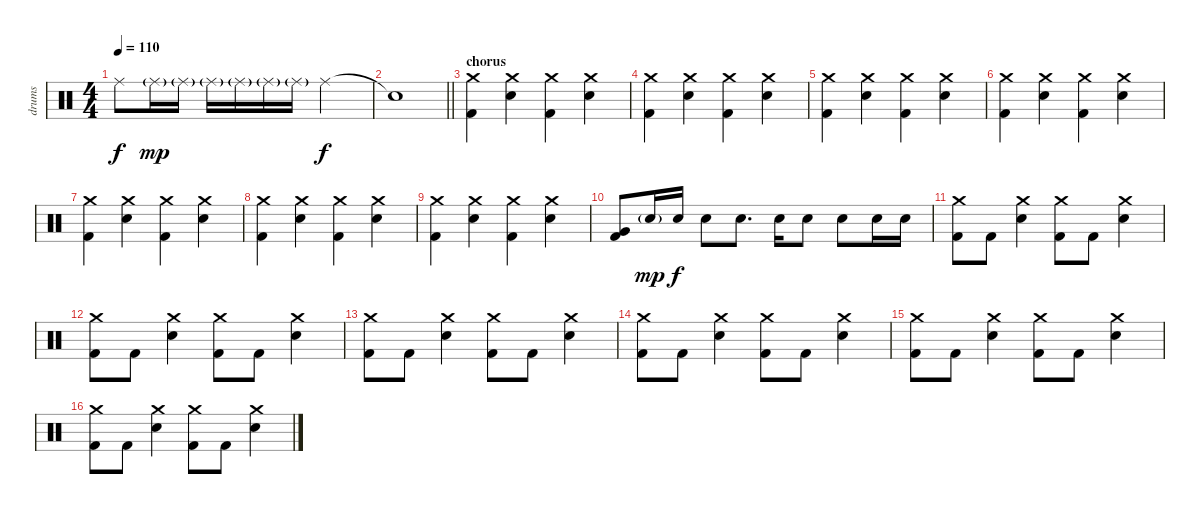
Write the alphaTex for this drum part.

\track ("drums" "drums") {instrument percussion}
\staff {score}
\articulation defaults
\ts (4 4)
\tempo 110
\clef neutral
\ks c "Ride (middle)".8{dy f} "Ride (middle)"{g}.16{dy mp} "Ride (middle)"{g}.16 "Ride (middle)"{g}.16 "Ride (middle)"{g}.16 "Ride (middle)"{g}.16 "Ride (middle)"{g}.16 "Ride (middle)".2{dy f}
|
\barLineRight lightlight "Snare (hit)"{t}.1
|
\section ("" "chorus")
("Crash medium (hit)" "Kick (hit) 2").4 ("Crash medium (hit)" "Electric Snare (hit)").4 ("Crash medium (hit)" "Kick (hit) 2").4 ("Crash medium (hit)" "Electric Snare (hit)").4 |
("Crash medium (hit)" "Kick (hit) 2").4 ("Crash medium (hit)" "Electric Snare (hit)").4 ("Crash medium (hit)" "Kick (hit) 2").4 ("Crash medium (hit)" "Electric Snare (hit)").4 |
("Crash medium (hit)" "Kick (hit) 2").4 ("Crash medium (hit)" "Electric Snare (hit)").4 ("Crash medium (hit)" "Kick (hit) 2").4 ("Crash medium (hit)" "Electric Snare (hit)").4 |
("Crash medium (hit)" "Kick (hit) 2").4 ("Crash medium (hit)" "Electric Snare (hit)").4 ("Crash medium (hit)" "Kick (hit) 2").4 ("Crash medium (hit)" "Electric Snare (hit)").4 |
("Crash medium (hit)" "Kick (hit) 2").4 ("Crash medium (hit)" "Electric Snare (hit)").4 ("Crash medium (hit)" "Kick (hit) 2").4 ("Crash medium (hit)" "Electric Snare (hit)").4 |
("Crash medium (hit)" "Kick (hit) 2").4 ("Crash medium (hit)" "Electric Snare (hit)").4 ("Crash medium (hit)" "Kick (hit) 2").4 ("Crash medium (hit)" "Electric Snare (hit)").4 |
("Crash medium (hit)" "Kick (hit) 2").4 ("Crash medium (hit)" "Electric Snare (hit)").4 ("Crash medium (hit)" "Kick (hit) 2").4 ("Crash medium (hit)" "Electric Snare (hit)").4 |
("Very Low Tom (hit)" "Kick (hit) 2").8 "Electric Snare (hit)"{g}.16{dy mp} "Electric Snare (hit)".16{dy f} "Electric Snare (hit)".8 "Electric Snare (hit)".8{d} "Electric Snare (hit)".16 "Electric Snare (hit)".8 "Electric Snare (hit)".8 "Electric Snare (hit)".16 "Electric Snare (hit)".16 |
("Crash medium (hit)" "Kick (hit) 2").8 "Kick (hit) 2".8 ("Crash medium (hit)" "Electric Snare (hit)").4 ("Crash medium (hit)" "Kick (hit) 2").8 "Kick (hit) 2".8 ("Crash medium (hit)" "Electric Snare (hit)").4 |
("Crash medium (hit)" "Kick (hit) 2").8 "Kick (hit) 2".8 ("Crash medium (hit)" "Electric Snare (hit)").4 ("Crash medium (hit)" "Kick (hit) 2").8 "Kick (hit) 2".8 ("Crash medium (hit)" "Electric Snare (hit)").4 |
("Crash medium (hit)" "Kick (hit) 2").8 "Kick (hit) 2".8 ("Crash medium (hit)" "Electric Snare (hit)").4 ("Crash medium (hit)" "Kick (hit) 2").8 "Kick (hit) 2".8 ("Crash medium (hit)" "Electric Snare (hit)").4 |
("Crash medium (hit)" "Kick (hit) 2").8 "Kick (hit) 2".8 ("Crash medium (hit)" "Electric Snare (hit)").4 ("Crash medium (hit)" "Kick (hit) 2").8 "Kick (hit) 2".8 ("Crash medium (hit)" "Electric Snare (hit)").4 |
("Crash medium (hit)" "Kick (hit) 2").8 "Kick (hit) 2".8 ("Crash medium (hit)" "Electric Snare (hit)").4 ("Crash medium (hit)" "Kick (hit) 2").8 "Kick (hit) 2".8 ("Crash medium (hit)" "Electric Snare (hit)").4 |
("Crash medium (hit)" "Kick (hit) 2").8 "Kick (hit) 2".8 ("Crash medium (hit)" "Electric Snare (hit)").4 ("Crash medium (hit)" "Kick (hit) 2").8 "Kick (hit) 2".8 ("Crash medium (hit)" "Electric Snare (hit)").4
